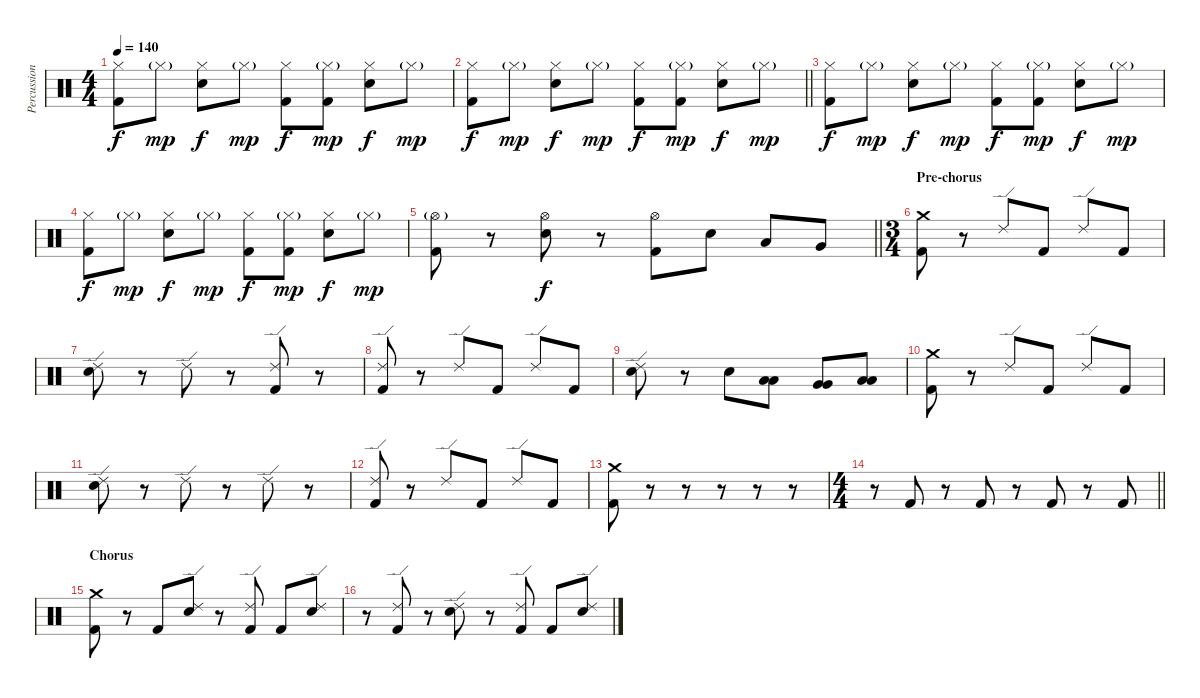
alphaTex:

\track ("Percussion" "Percussion") {instrument percussion}
\staff {score}
\articulation defaults
\ts (4 4)
\tempo 140
\clef neutral
\ks c
("Hi-Hat (closed)" "Kick (hit) 2").8{dy f} "Hi-Hat (closed)"{g}.8{dy mp} ("Hi-Hat (closed)" "Electric Snare (hit)").8{dy f} "Hi-Hat (closed)"{g}.8{dy mp} ("Hi-Hat (closed)" "Kick (hit) 2").8{dy f} ("Hi-Hat (closed)"{g} "Kick (hit) 2").8{dy mp} ("Hi-Hat (closed)" "Electric Snare (hit)").8{dy f} "Hi-Hat (closed)"{g}.8{dy mp} |
\barLineRight lightlight
("Hi-Hat (closed)" "Kick (hit) 2").8{dy f} "Hi-Hat (closed)"{g}.8{dy mp} ("Hi-Hat (closed)" "Electric Snare (hit)").8{dy f} "Hi-Hat (closed)"{g}.8{dy mp} ("Hi-Hat (closed)" "Kick (hit) 2").8{dy f} ("Hi-Hat (closed)"{g} "Kick (hit) 2").8{dy mp} ("Hi-Hat (closed)" "Electric Snare (hit)").8{dy f} "Hi-Hat (closed)"{g}.8{dy mp} |
("Hi-Hat (closed)" "Kick (hit) 2").8{dy f} "Hi-Hat (closed)"{g}.8{dy mp} ("Hi-Hat (closed)" "Electric Snare (hit)").8{dy f} "Hi-Hat (closed)"{g}.8{dy mp} ("Hi-Hat (closed)" "Kick (hit) 2").8{dy f} ("Hi-Hat (closed)"{g} "Kick (hit) 2").8{dy mp} ("Hi-Hat (closed)" "Electric Snare (hit)").8{dy f} "Hi-Hat (closed)"{g}.8{dy mp} |
("Hi-Hat (closed)" "Kick (hit) 2").8{dy f} "Hi-Hat (closed)"{g}.8{dy mp} ("Hi-Hat (closed)" "Electric Snare (hit)").8{dy f} "Hi-Hat (closed)"{g}.8{dy mp} ("Hi-Hat (closed)" "Kick (hit) 2").8{dy f} ("Hi-Hat (closed)"{g} "Kick (hit) 2").8{dy mp} ("Hi-Hat (closed)" "Electric Snare (hit)").8{dy f} "Hi-Hat (closed)"{g}.8{dy mp} |
\barLineRight lightlight
("Hi-Hat (open)"{g} "Kick (hit) 2").8 r.8 ("Hi-Hat (open)" "Electric Snare (hit)").8{dy f} r.8 ("Hi-Hat (open)" "Kick (hit) 2").8 "Electric Snare (hit)".8 "Low Tom (hit)".8 "Very Low Tom (hit)".8 |
\ts (3 4)
\section ("" "Pre-chorus")
("Crash medium (hit)" "Kick (hit) 2").8 r.8 "Ride (edge) 2".8 "Kick (hit) 2".8 "Ride (edge) 2".8 "Kick (hit) 2".8 |
("Ride (edge) 2" "Electric Snare (hit)").8 r.8 "Ride (edge) 2".8 r.8 ("Ride (edge) 2" "Kick (hit) 2").8 r.8 |
("Ride (edge) 2" "Kick (hit) 2").8 r.8 "Ride (edge) 2".8 "Kick (hit) 2".8 "Ride (edge) 2".8 "Kick (hit) 2".8 |
("Ride (edge) 2" "Electric Snare (hit)").8 r.8 "Electric Snare (hit)".8 ("Low Floor Tom (hit)" "Low Floor Tom (hit)").8 ("Very Low Tom (hit)" "Very Low Tom (hit)").8 ("Low Tom (hit)" "Low Tom (hit)").8 |
("Crash medium (hit)" "Kick (hit) 2").8 r.8 "Ride (edge) 2".8 "Kick (hit) 2".8 "Ride (edge) 2".8 "Kick (hit) 2".8 |
("Ride (edge) 2" "Electric Snare (hit)").8 r.8 "Ride (edge) 2".8 r.8 "Ride (edge) 2".8 r.8 |
("Ride (edge) 2" "Kick (hit) 2").8 r.8 "Ride (edge) 2".8 "Kick (hit) 2".8 "Ride (edge) 2".8 "Kick (hit) 2".8 |
("Crash medium (hit)" "Kick (hit) 2").8 r.8 r.8 r.8 r.8 r.8 |
\ts (4 4)
\barLineRight lightlight
r.8 "Kick (hit) 2".8 r.8 "Kick (hit) 2".8 r.8 "Kick (hit) 2".8 r.8 "Kick (hit) 2".8 |
\section ("" "Chorus")
("Crash medium (hit)" "Kick (hit) 2").8 r.8 "Kick (hit) 2".8 ("Ride (edge) 2" "Electric Snare (hit)").8 r.8 ("Ride (edge) 2" "Kick (hit) 2").8 "Kick (hit) 2".8 ("Ride (edge) 2" "Electric Snare (hit)").8 |
r.8 ("Ride (edge) 2" "Kick (hit) 2").8 r.8 ("Ride (edge) 2" "Electric Snare (hit)").8 r.8 ("Ride (edge) 2" "Kick (hit) 2").8 "Kick (hit) 2".8 ("Ride (edge) 2" "Electric Snare (hit)").8
